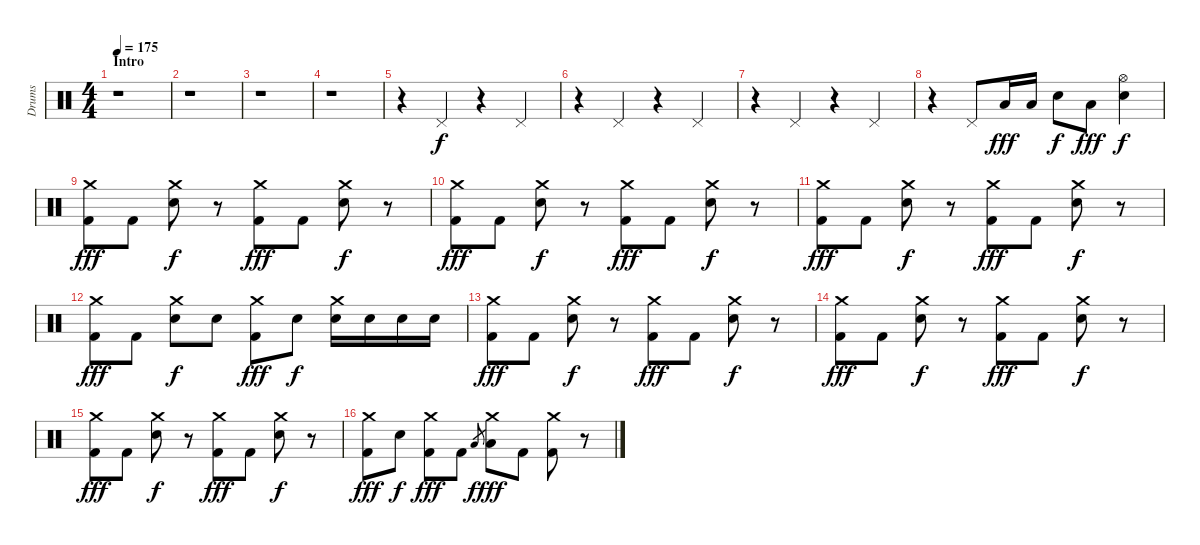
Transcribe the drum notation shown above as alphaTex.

\track ("Drums" "Drums") {instrument percussion}
\staff {score}
\articulation defaults
\ts (4 4)
\section ("" "Intro")
\tempo 175
\clef neutral
\ks c
r.1{dy f} |
r.1 |
r.1 |
r.1 |
r.4 "Pedal Hi-Hat (hit)".4 r.4 "Pedal Hi-Hat (hit)".4 |
r.4 "Pedal Hi-Hat (hit)".4 r.4 "Pedal Hi-Hat (hit)".4 |
r.4 "Pedal Hi-Hat (hit)".4 r.4 "Pedal Hi-Hat (hit)".4 |
r.4 "Pedal Hi-Hat (hit)".8 "Low Floor Tom (hit)".16{dy fff} "Low Floor Tom (hit)".16 "Snare (hit) 2".8{dy f} "Low Floor Tom (hit)".8{dy fff} ("Hi-Hat (open)" "Snare (hit) 2").4{dy f} |
("Crash medium (hit)" "Kick (hit) 2").8{dy fff} "Kick (hit) 2".8 ("Crash medium (hit)" "Electric Snare (hit)").8{dy f} r.8 ("Crash medium (hit)" "Kick (hit) 2").8{dy fff} "Kick (hit) 2".8 ("Crash medium (hit)" "Electric Snare (hit)").8{dy f} r.8 |
("Crash medium (hit)" "Kick (hit) 2").8{dy fff} "Kick (hit) 2".8 ("Crash medium (hit)" "Electric Snare (hit)").8{dy f} r.8 ("Crash medium (hit)" "Kick (hit) 2").8{dy fff} "Kick (hit) 2".8 ("Crash medium (hit)" "Electric Snare (hit)").8{dy f} r.8 |
("Crash medium (hit)" "Kick (hit) 2").8{dy fff} "Kick (hit) 2".8 ("Crash medium (hit)" "Electric Snare (hit)").8{dy f} r.8 ("Crash medium (hit)" "Kick (hit) 2").8{dy fff} "Kick (hit) 2".8 ("Crash medium (hit)" "Electric Snare (hit)").8{dy f} r.8 |
("Crash medium (hit)" "Kick (hit) 2").8{dy fff} "Kick (hit) 2".8 ("Crash medium (hit)" "Electric Snare (hit)").8{dy f} "Electric Snare (hit)".8 ("Crash medium (hit)" "Kick (hit) 2").8{dy fff} "Electric Snare (hit)".8{dy f} ("Crash medium (hit)" "Electric Snare (hit)").16 "Electric Snare (hit)".16 "Electric Snare (hit)".16 "Electric Snare (hit)".16 |
("Crash medium (hit)" "Kick (hit) 2").8{dy fff} "Kick (hit) 2".8 ("Crash medium (hit)" "Electric Snare (hit)").8{dy f} r.8 ("Crash medium (hit)" "Kick (hit) 2").8{dy fff} "Kick (hit) 2".8 ("Crash medium (hit)" "Electric Snare (hit)").8{dy f} r.8 |
("Crash medium (hit)" "Kick (hit) 2").8{dy fff} "Kick (hit) 2".8 ("Crash medium (hit)" "Electric Snare (hit)").8{dy f} r.8 ("Crash medium (hit)" "Kick (hit) 2").8{dy fff} "Kick (hit) 2".8 ("Crash medium (hit)" "Electric Snare (hit)").8{dy f} r.8 |
("Crash medium (hit)" "Kick (hit) 2").8{dy fff} "Kick (hit) 2".8 ("Crash medium (hit)" "Electric Snare (hit)").8{dy f} r.8 ("Crash medium (hit)" "Kick (hit) 2").8{dy fff} "Kick (hit) 2".8 ("Crash medium (hit)" "Electric Snare (hit)").8{dy f} r.8 |
("Crash medium (hit)" "Kick (hit) 2").8{dy fff} "Electric Snare (hit)".8{dy f} ("Crash medium (hit)" "Kick (hit) 2").8{dy fff} "Kick (hit) 2".8 "Low Floor Tom (hit)".8{gr dy f} ("Crash medium (hit)" "Low Floor Tom (hit)").8{dy fff} "Kick (hit) 2".8 ("Crash medium (hit)" "Kick (hit) 2").8 r.8
